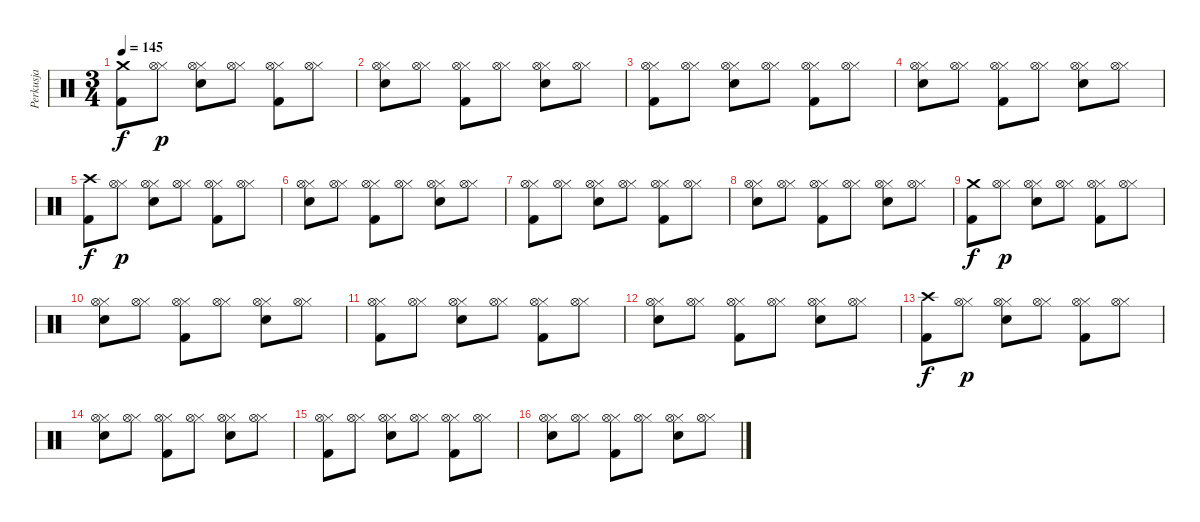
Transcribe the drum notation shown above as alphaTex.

\track ("Perkusja" "Perkusja") {instrument percussion}
\staff {score}
\articulation defaults
\ts (3 4)
\tempo 145
\clef neutral
\ks c
("Kick (hit) 2" "Crash medium (hit)").8{dy f} ("Hi-Hat (closed)" "Hi-Hat (open)").8{dy p} ("Electric Snare (hit)" "Hi-Hat (closed)" "Hi-Hat (open)").8 ("Hi-Hat (closed)" "Hi-Hat (open)").8 ("Kick (hit) 2" "Hi-Hat (closed)" "Hi-Hat (open)").8 ("Hi-Hat (closed)" "Hi-Hat (open)").8 |
("Electric Snare (hit)" "Hi-Hat (closed)" "Hi-Hat (open)").8 ("Hi-Hat (closed)" "Hi-Hat (open)").8 ("Kick (hit) 2" "Hi-Hat (closed)" "Hi-Hat (open)").8 ("Hi-Hat (closed)" "Hi-Hat (open)").8 ("Electric Snare (hit)" "Hi-Hat (closed)" "Hi-Hat (open)").8 ("Hi-Hat (closed)" "Hi-Hat (open)").8 |
("Kick (hit) 2" "Hi-Hat (closed)" "Hi-Hat (open)").8 ("Hi-Hat (closed)" "Hi-Hat (open)").8 ("Electric Snare (hit)" "Hi-Hat (closed)" "Hi-Hat (open)").8 ("Hi-Hat (closed)" "Hi-Hat (open)").8 ("Kick (hit) 2" "Hi-Hat (closed)" "Hi-Hat (open)").8 ("Hi-Hat (closed)" "Hi-Hat (open)").8 |
("Electric Snare (hit)" "Hi-Hat (closed)" "Hi-Hat (open)").8 ("Hi-Hat (closed)" "Hi-Hat (open)").8 ("Kick (hit) 2" "Hi-Hat (closed)" "Hi-Hat (open)").8 ("Hi-Hat (closed)" "Hi-Hat (open)").8 ("Electric Snare (hit)" "Hi-Hat (closed)" "Hi-Hat (open)").8 ("Hi-Hat (closed)" "Hi-Hat (open)").8 |
("Kick (hit) 2" "Crash high (hit)").8{dy f} ("Hi-Hat (closed)" "Hi-Hat (open)").8{dy p} ("Electric Snare (hit)" "Hi-Hat (closed)" "Hi-Hat (open)").8 ("Hi-Hat (closed)" "Hi-Hat (open)").8 ("Kick (hit) 2" "Hi-Hat (closed)" "Hi-Hat (open)").8 ("Hi-Hat (closed)" "Hi-Hat (open)").8 |
("Electric Snare (hit)" "Hi-Hat (closed)" "Hi-Hat (open)").8 ("Hi-Hat (closed)" "Hi-Hat (open)").8 ("Kick (hit) 2" "Hi-Hat (closed)" "Hi-Hat (open)").8 ("Hi-Hat (closed)" "Hi-Hat (open)").8 ("Electric Snare (hit)" "Hi-Hat (closed)" "Hi-Hat (open)").8 ("Hi-Hat (closed)" "Hi-Hat (open)").8 |
("Kick (hit) 2" "Hi-Hat (closed)" "Hi-Hat (open)").8 ("Hi-Hat (closed)" "Hi-Hat (open)").8 ("Electric Snare (hit)" "Hi-Hat (closed)" "Hi-Hat (open)").8 ("Hi-Hat (closed)" "Hi-Hat (open)").8 ("Kick (hit) 2" "Hi-Hat (closed)" "Hi-Hat (open)").8 ("Hi-Hat (closed)" "Hi-Hat (open)").8 |
("Electric Snare (hit)" "Hi-Hat (closed)" "Hi-Hat (open)").8 ("Hi-Hat (closed)" "Hi-Hat (open)").8 ("Kick (hit) 2" "Hi-Hat (closed)" "Hi-Hat (open)").8 ("Hi-Hat (closed)" "Hi-Hat (open)").8 ("Electric Snare (hit)" "Hi-Hat (closed)" "Hi-Hat (open)").8 ("Hi-Hat (closed)" "Hi-Hat (open)").8 |
("Kick (hit) 2" "Crash medium (hit)").8{dy f} ("Hi-Hat (closed)" "Hi-Hat (open)").8{dy p} ("Electric Snare (hit)" "Hi-Hat (closed)" "Hi-Hat (open)").8 ("Hi-Hat (closed)" "Hi-Hat (open)").8 ("Kick (hit) 2" "Hi-Hat (closed)" "Hi-Hat (open)").8 ("Hi-Hat (closed)" "Hi-Hat (open)").8 |
("Electric Snare (hit)" "Hi-Hat (closed)" "Hi-Hat (open)").8 ("Hi-Hat (closed)" "Hi-Hat (open)").8 ("Kick (hit) 2" "Hi-Hat (closed)" "Hi-Hat (open)").8 ("Hi-Hat (closed)" "Hi-Hat (open)").8 ("Electric Snare (hit)" "Hi-Hat (closed)" "Hi-Hat (open)").8 ("Hi-Hat (closed)" "Hi-Hat (open)").8 |
("Kick (hit) 2" "Hi-Hat (closed)" "Hi-Hat (open)").8 ("Hi-Hat (closed)" "Hi-Hat (open)").8 ("Electric Snare (hit)" "Hi-Hat (closed)" "Hi-Hat (open)").8 ("Hi-Hat (closed)" "Hi-Hat (open)").8 ("Kick (hit) 2" "Hi-Hat (closed)" "Hi-Hat (open)").8 ("Hi-Hat (closed)" "Hi-Hat (open)").8 |
("Electric Snare (hit)" "Hi-Hat (closed)" "Hi-Hat (open)").8 ("Hi-Hat (closed)" "Hi-Hat (open)").8 ("Kick (hit) 2" "Hi-Hat (closed)" "Hi-Hat (open)").8 ("Hi-Hat (closed)" "Hi-Hat (open)").8 ("Electric Snare (hit)" "Hi-Hat (closed)" "Hi-Hat (open)").8 ("Hi-Hat (closed)" "Hi-Hat (open)").8 |
("Kick (hit) 2" "Crash high (hit)").8{dy f} ("Hi-Hat (closed)" "Hi-Hat (open)").8{dy p} ("Electric Snare (hit)" "Hi-Hat (closed)" "Hi-Hat (open)").8 ("Hi-Hat (closed)" "Hi-Hat (open)").8 ("Kick (hit) 2" "Hi-Hat (closed)" "Hi-Hat (open)").8 ("Hi-Hat (closed)" "Hi-Hat (open)").8 |
("Electric Snare (hit)" "Hi-Hat (closed)" "Hi-Hat (open)").8 ("Hi-Hat (closed)" "Hi-Hat (open)").8 ("Kick (hit) 2" "Hi-Hat (closed)" "Hi-Hat (open)").8 ("Hi-Hat (closed)" "Hi-Hat (open)").8 ("Electric Snare (hit)" "Hi-Hat (closed)" "Hi-Hat (open)").8 ("Hi-Hat (closed)" "Hi-Hat (open)").8 |
("Kick (hit) 2" "Hi-Hat (closed)" "Hi-Hat (open)").8 ("Hi-Hat (closed)" "Hi-Hat (open)").8 ("Electric Snare (hit)" "Hi-Hat (closed)" "Hi-Hat (open)").8 ("Hi-Hat (closed)" "Hi-Hat (open)").8 ("Kick (hit) 2" "Hi-Hat (closed)" "Hi-Hat (open)").8 ("Hi-Hat (closed)" "Hi-Hat (open)").8 |
("Electric Snare (hit)" "Hi-Hat (closed)" "Hi-Hat (open)").8 ("Hi-Hat (closed)" "Hi-Hat (open)").8 ("Kick (hit) 2" "Hi-Hat (closed)" "Hi-Hat (open)").8 ("Hi-Hat (closed)" "Hi-Hat (open)").8 ("Electric Snare (hit)" "Hi-Hat (closed)" "Hi-Hat (open)").8 ("Hi-Hat (closed)" "Hi-Hat (open)").8
